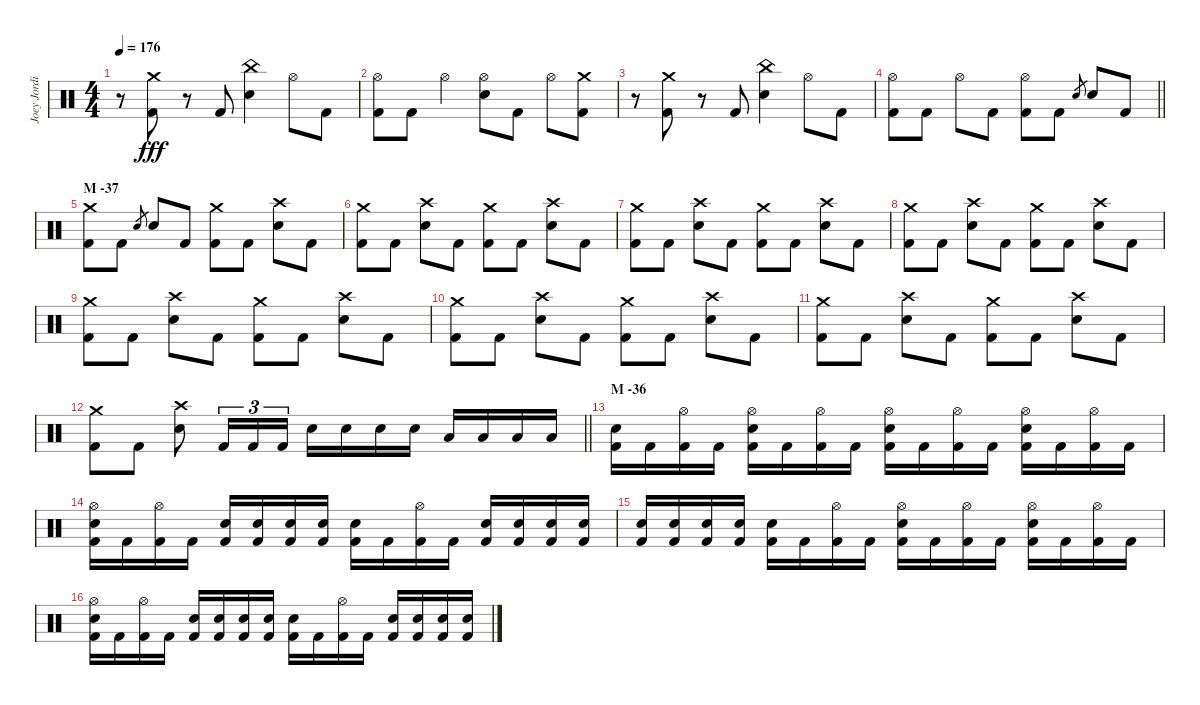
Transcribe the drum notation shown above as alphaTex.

\track ("Joey Jordison" "Joey Jordi") {instrument percussion}
\staff {score}
\articulation defaults
\ts (4 4)
\tempo 176
\clef neutral
\ks c
r.8{dy fff} ("Crash medium (hit)" "Kick (hit) 2").8 r.8 "Kick (hit) 2".8 ("China (hit)" "Electric Snare (hit)").4 "Hi-Hat (open)".8 "Kick (hit) 2".8 |
("Hi-Hat (open)" "Kick (hit) 2").8 "Kick (hit) 2".8 "Hi-Hat (open)".4 ("Hi-Hat (open)" "Electric Snare (hit)").8 "Kick (hit) 2".8 "Hi-Hat (open)".8 ("Crash medium (hit)" "Kick (hit) 2").8 |
r.8 ("Crash medium (hit)" "Kick (hit) 2").8 r.8 "Kick (hit) 2".8 ("China (hit)" "Electric Snare (hit)").4 "Hi-Hat (open)".8 "Kick (hit) 2".8 |
\barLineRight lightlight
("Hi-Hat (open)" "Kick (hit) 2").8 "Kick (hit) 2".8 "Hi-Hat (open)".8 "Kick (hit) 2".8 ("Hi-Hat (open)" "Kick (hit) 2").8 "Kick (hit) 2".8 "Electric Snare (hit)".8{gr} "Electric Snare (hit)".8 "Kick (hit) 2".8 |
\section ("" "M -37")
("Crash medium (hit)" "Kick (hit) 2").8 "Kick (hit) 2".8 "Electric Snare (hit)".8{gr} "Electric Snare (hit)".8 "Kick (hit) 2".8 ("Crash medium (hit)" "Kick (hit) 2").8 "Kick (hit) 2".8 ("Crash high (hit)" "Electric Snare (hit)").8 "Kick (hit) 2".8 |
("Crash medium (hit)" "Kick (hit) 2").8 "Kick (hit) 2".8 ("Crash high (hit)" "Electric Snare (hit)").8 "Kick (hit) 2".8 ("Crash medium (hit)" "Kick (hit) 2").8 "Kick (hit) 2".8 ("Crash high (hit)" "Electric Snare (hit)").8 "Kick (hit) 2".8 |
("Crash medium (hit)" "Kick (hit) 2").8 "Kick (hit) 2".8 ("Crash high (hit)" "Electric Snare (hit)").8 "Kick (hit) 2".8 ("Crash medium (hit)" "Kick (hit) 2").8 "Kick (hit) 2".8 ("Crash high (hit)" "Electric Snare (hit)").8 "Kick (hit) 2".8 |
("Crash medium (hit)" "Kick (hit) 2").8 "Kick (hit) 2".8 ("Crash high (hit)" "Electric Snare (hit)").8 "Kick (hit) 2".8 ("Crash medium (hit)" "Kick (hit) 2").8 "Kick (hit) 2".8 ("Crash high (hit)" "Electric Snare (hit)").8 "Kick (hit) 2".8 |
("Crash medium (hit)" "Kick (hit) 2").8 "Kick (hit) 2".8 ("Crash high (hit)" "Electric Snare (hit)").8 "Kick (hit) 2".8 ("Crash medium (hit)" "Kick (hit) 2").8 "Kick (hit) 2".8 ("Crash high (hit)" "Electric Snare (hit)").8 "Kick (hit) 2".8 |
("Crash medium (hit)" "Kick (hit) 2").8 "Kick (hit) 2".8 ("Crash high (hit)" "Electric Snare (hit)").8 "Kick (hit) 2".8 ("Crash medium (hit)" "Kick (hit) 2").8 "Kick (hit) 2".8 ("Crash high (hit)" "Electric Snare (hit)").8 "Kick (hit) 2".8 |
("Crash medium (hit)" "Kick (hit) 2").8 "Kick (hit) 2".8 ("Crash high (hit)" "Electric Snare (hit)").8 "Kick (hit) 2".8 ("Crash medium (hit)" "Kick (hit) 2").8 "Kick (hit) 2".8 ("Crash high (hit)" "Electric Snare (hit)").8 "Kick (hit) 2".8 |
\barLineRight lightlight
("Crash medium (hit)" "Kick (hit) 2").8 "Kick (hit) 2".8 ("Crash high (hit)" "Electric Snare (hit)").8 "Kick (hit) 2".16{tu (3 2)} "Kick (hit) 2".16{tu (3 2)} "Kick (hit) 2".16{tu (3 2)} "Electric Snare (hit)".16 "Electric Snare (hit)".16 "Electric Snare (hit)".16 "Electric Snare (hit)".16 "Low Tom (hit)".16 "Low Tom (hit)".16 "Low Tom (hit)".16 "Low Tom (hit)".16 |
\section ("" "M -36")
("Electric Snare (hit)" "Kick (hit) 2").16 "Kick (hit) 2".16 ("Hi-Hat (open)" "Kick (hit) 2").16 "Kick (hit) 2".16 ("Hi-Hat (open)" "Electric Snare (hit)" "Kick (hit) 2").16 "Kick (hit) 2".16 ("Hi-Hat (open)" "Kick (hit) 2").16 "Kick (hit) 2".16 ("Hi-Hat (open)" "Electric Snare (hit)" "Kick (hit) 2").16 "Kick (hit) 2".16 ("Hi-Hat (open)" "Kick (hit) 2").16 "Kick (hit) 2".16 ("Hi-Hat (open)" "Electric Snare (hit)" "Kick (hit) 2").16 "Kick (hit) 2".16 ("Hi-Hat (open)" "Kick (hit) 2").16 "Kick (hit) 2".16 |
("Hi-Hat (open)" "Electric Snare (hit)" "Kick (hit) 2").16 "Kick (hit) 2".16 ("Hi-Hat (open)" "Kick (hit) 2").16 "Kick (hit) 2".16 ("Electric Snare (hit)" "Kick (hit) 2").16 ("Electric Snare (hit)" "Kick (hit) 2").16 ("Electric Snare (hit)" "Kick (hit) 2").16 ("Electric Snare (hit)" "Kick (hit) 2").16 ("Electric Snare (hit)" "Kick (hit) 2").16 "Kick (hit) 2".16 ("Hi-Hat (open)" "Kick (hit) 2").16 "Kick (hit) 2".16 ("Electric Snare (hit)" "Kick (hit) 2").16 ("Electric Snare (hit)" "Kick (hit) 2").16 ("Electric Snare (hit)" "Kick (hit) 2").16 ("Electric Snare (hit)" "Kick (hit) 2").16 |
("Electric Snare (hit)" "Kick (hit) 2").16 ("Electric Snare (hit)" "Kick (hit) 2").16 ("Electric Snare (hit)" "Kick (hit) 2").16 ("Electric Snare (hit)" "Kick (hit) 2").16 ("Electric Snare (hit)" "Kick (hit) 2").16 "Kick (hit) 2".16 ("Hi-Hat (open)" "Kick (hit) 2").16 "Kick (hit) 2".16 ("Hi-Hat (open)" "Electric Snare (hit)" "Kick (hit) 2").16 "Kick (hit) 2".16 ("Hi-Hat (open)" "Kick (hit) 2").16 "Kick (hit) 2".16 ("Hi-Hat (open)" "Electric Snare (hit)" "Kick (hit) 2").16 "Kick (hit) 2".16 ("Hi-Hat (open)" "Kick (hit) 2").16 "Kick (hit) 2".16 |
("Hi-Hat (open)" "Electric Snare (hit)" "Kick (hit) 2").16 "Kick (hit) 2".16 ("Hi-Hat (open)" "Kick (hit) 2").16 "Kick (hit) 2".16 ("Electric Snare (hit)" "Kick (hit) 2").16 ("Electric Snare (hit)" "Kick (hit) 2").16 ("Electric Snare (hit)" "Kick (hit) 2").16 ("Electric Snare (hit)" "Kick (hit) 2").16 ("Electric Snare (hit)" "Kick (hit) 2").16 "Kick (hit) 2".16 ("Hi-Hat (open)" "Kick (hit) 2").16 "Kick (hit) 2".16 ("Electric Snare (hit)" "Kick (hit) 2").16 ("Electric Snare (hit)" "Kick (hit) 2").16 ("Electric Snare (hit)" "Kick (hit) 2").16 ("Electric Snare (hit)" "Kick (hit) 2").16
